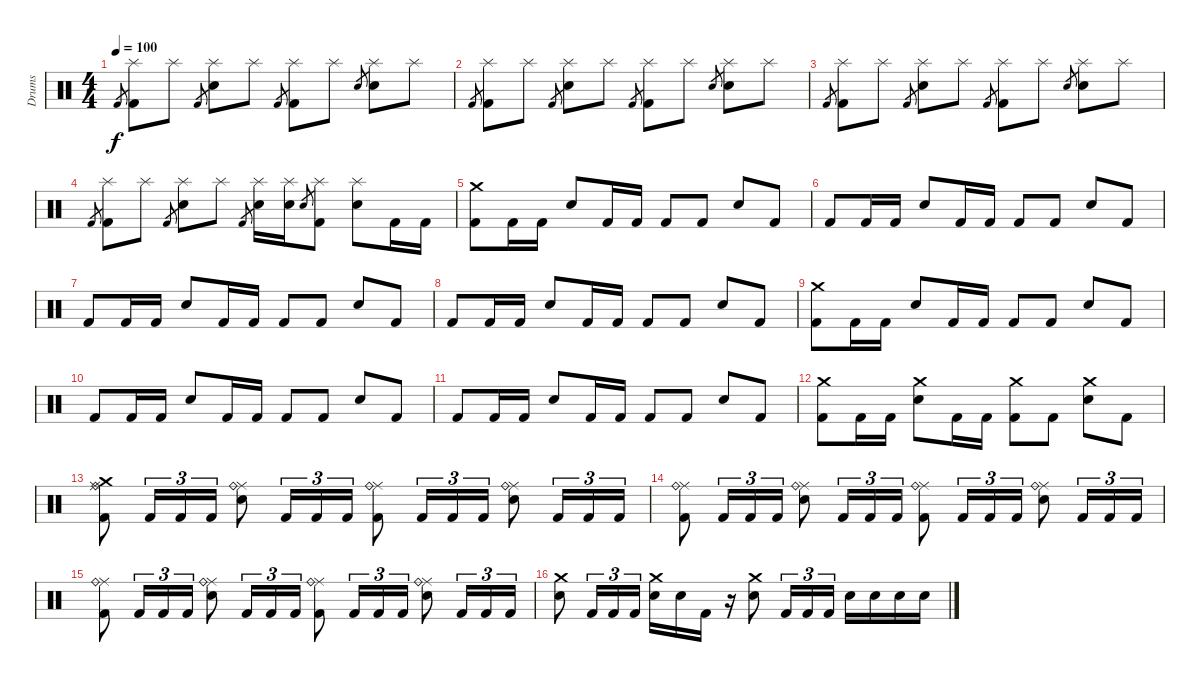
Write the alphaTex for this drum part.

\track ("Drums" "Drums") {instrument percussion}
\staff {score}
\articulation defaults
\ts (4 4)
\tempo 100
\clef neutral
\ks c "Kick (hit) 2".8{gr dy f}
("Splash (hit)" "Kick (hit) 2").8 "Splash (hit)".8 "Kick (hit) 2".8{gr} ("Splash (hit)" "Snare (hit) 2").8 "Splash (hit)".8 "Kick (hit) 2".8{gr} ("Splash (hit)" "Kick (hit) 2").8 "Splash (hit)".8 "Snare (hit) 2".8{gr} ("Splash (hit)" "Snare (hit) 2").8 "Splash (hit)".8 |
"Kick (hit) 2".8{gr} ("Splash (hit)" "Kick (hit) 2").8 "Splash (hit)".8 "Kick (hit) 2".8{gr} ("Splash (hit)" "Snare (hit) 2").8 "Splash (hit)".8 "Kick (hit) 2".8{gr} ("Splash (hit)" "Kick (hit) 2").8 "Splash (hit)".8 "Snare (hit) 2".8{gr} ("Splash (hit)" "Snare (hit) 2").8 "Splash (hit)".8 |
"Kick (hit) 2".8{gr} ("Splash (hit)" "Kick (hit) 2").8 "Splash (hit)".8 "Kick (hit) 2".8{gr} ("Splash (hit)" "Snare (hit) 2").8 "Splash (hit)".8 "Kick (hit) 2".8{gr} ("Splash (hit)" "Kick (hit) 2").8 "Splash (hit)".8 "Snare (hit) 2".8{gr} ("Splash (hit)" "Snare (hit) 2").8 "Splash (hit)".8 |
"Kick (hit) 2".8{gr} ("Splash (hit)" "Kick (hit) 2").8 "Splash (hit)".8 "Kick (hit) 2".8{gr} ("Splash (hit)" "Snare (hit) 2").8 "Splash (hit)".8 "Kick (hit) 2".8{gr} ("Splash (hit)" "Snare (hit) 2").16 ("Splash (hit)" "Snare (hit) 2").16 "Snare (hit) 2".8{gr} ("Splash (hit)" "Kick (hit) 2").8 ("Splash (hit)" "Snare (hit) 2").8 "Kick (hit) 2".16 "Kick (hit) 2".16 |
("Crash medium (hit)" "Kick (hit) 2").8 "Kick (hit) 2".16 "Kick (hit) 2".16 "Snare (hit) 2".8 "Kick (hit) 2".16 "Kick (hit) 2".16 "Kick (hit) 2".8 "Kick (hit) 2".8 "Snare (hit) 2".8 "Kick (hit) 2".8 |
"Kick (hit) 2".8 "Kick (hit) 2".16 "Kick (hit) 2".16 "Snare (hit) 2".8 "Kick (hit) 2".16 "Kick (hit) 2".16 "Kick (hit) 2".8 "Kick (hit) 2".8 "Snare (hit) 2".8 "Kick (hit) 2".8 |
"Kick (hit) 2".8 "Kick (hit) 2".16 "Kick (hit) 2".16 "Snare (hit) 2".8 "Kick (hit) 2".16 "Kick (hit) 2".16 "Kick (hit) 2".8 "Kick (hit) 2".8 "Snare (hit) 2".8 "Kick (hit) 2".8 |
"Kick (hit) 2".8 "Kick (hit) 2".16 "Kick (hit) 2".16 "Snare (hit) 2".8 "Kick (hit) 2".16 "Kick (hit) 2".16 "Kick (hit) 2".8 "Kick (hit) 2".8 "Snare (hit) 2".8 "Kick (hit) 2".8 |
("Crash medium (hit)" "Kick (hit) 2").8 "Kick (hit) 2".16 "Kick (hit) 2".16 "Snare (hit) 2".8 "Kick (hit) 2".16 "Kick (hit) 2".16 "Kick (hit) 2".8 "Kick (hit) 2".8 "Snare (hit) 2".8 "Kick (hit) 2".8 |
"Kick (hit) 2".8 "Kick (hit) 2".16 "Kick (hit) 2".16 "Snare (hit) 2".8 "Kick (hit) 2".16 "Kick (hit) 2".16 "Kick (hit) 2".8 "Kick (hit) 2".8 "Snare (hit) 2".8 "Kick (hit) 2".8 |
"Kick (hit) 2".8 "Kick (hit) 2".16 "Kick (hit) 2".16 "Snare (hit) 2".8 "Kick (hit) 2".16 "Kick (hit) 2".16 "Kick (hit) 2".8 "Kick (hit) 2".8 "Snare (hit) 2".8 "Kick (hit) 2".8 |
("Crash medium (hit)" "Kick (hit) 2").8 "Kick (hit) 2".16 "Kick (hit) 2".16 ("Crash medium (hit)" "Snare (hit) 2").8 "Kick (hit) 2".16 "Kick (hit) 2".16 ("Crash medium (hit)" "Kick (hit) 2").8 "Kick (hit) 2".8 ("Crash medium (hit)" "Snare (hit) 2").8 "Kick (hit) 2".8 |
("Kick (hit) 2" "Crash medium (hit)" "Ride (middle)" "Ride (bell)").8 "Kick (hit) 2".16{tu (3 2)} "Kick (hit) 2".16{tu (3 2)} "Kick (hit) 2".16{tu (3 2)} ("Snare (hit) 2" "Ride (middle)" "Ride (bell)").8 "Kick (hit) 2".16{tu (3 2)} "Kick (hit) 2".16{tu (3 2)} "Kick (hit) 2".16{tu (3 2)} ("Kick (hit) 2" "Ride (middle)" "Ride (bell)").8 "Kick (hit) 2".16{tu (3 2)} "Kick (hit) 2".16{tu (3 2)} "Kick (hit) 2".16{tu (3 2)} ("Snare (hit) 2" "Ride (middle)" "Ride (bell)").8 "Kick (hit) 2".16{tu (3 2)} "Kick (hit) 2".16{tu (3 2)} "Kick (hit) 2".16{tu (3 2)} |
("Kick (hit) 2" "Ride (middle)" "Ride (bell)").8 "Kick (hit) 2".16{tu (3 2)} "Kick (hit) 2".16{tu (3 2)} "Kick (hit) 2".16{tu (3 2)} ("Snare (hit) 2" "Ride (middle)" "Ride (bell)").8 "Kick (hit) 2".16{tu (3 2)} "Kick (hit) 2".16{tu (3 2)} "Kick (hit) 2".16{tu (3 2)} ("Kick (hit) 2" "Ride (middle)" "Ride (bell)").8 "Kick (hit) 2".16{tu (3 2)} "Kick (hit) 2".16{tu (3 2)} "Kick (hit) 2".16{tu (3 2)} ("Snare (hit) 2" "Ride (middle)" "Ride (bell)").8 "Kick (hit) 2".16{tu (3 2)} "Kick (hit) 2".16{tu (3 2)} "Kick (hit) 2".16{tu (3 2)} |
("Kick (hit) 2" "Ride (middle)" "Ride (bell)").8 "Kick (hit) 2".16{tu (3 2)} "Kick (hit) 2".16{tu (3 2)} "Kick (hit) 2".16{tu (3 2)} ("Snare (hit) 2" "Ride (middle)" "Ride (bell)").8 "Kick (hit) 2".16{tu (3 2)} "Kick (hit) 2".16{tu (3 2)} "Kick (hit) 2".16{tu (3 2)} ("Kick (hit) 2" "Ride (middle)" "Ride (bell)").8 "Kick (hit) 2".16{tu (3 2)} "Kick (hit) 2".16{tu (3 2)} "Kick (hit) 2".16{tu (3 2)} ("Snare (hit) 2" "Ride (middle)" "Ride (bell)").8 "Kick (hit) 2".16{tu (3 2)} "Kick (hit) 2".16{tu (3 2)} "Kick (hit) 2".16{tu (3 2)} |
("Snare (hit) 2" "Crash medium (hit)").8 "Kick (hit) 2".16{tu (3 2)} "Kick (hit) 2".16{tu (3 2)} "Kick (hit) 2".16{tu (3 2)} ("Snare (hit) 2" "Crash medium (hit)").16 "Snare (hit) 2".16 "Kick (hit) 2".16 r.16 ("Snare (hit) 2" "Crash medium (hit)").8 "Kick (hit) 2".16{tu (3 2)} "Kick (hit) 2".16{tu (3 2)} "Kick (hit) 2".16{tu (3 2)} "Snare (hit) 2".16 "Snare (hit) 2".16 "Snare (hit) 2".16 "Snare (hit) 2".16
